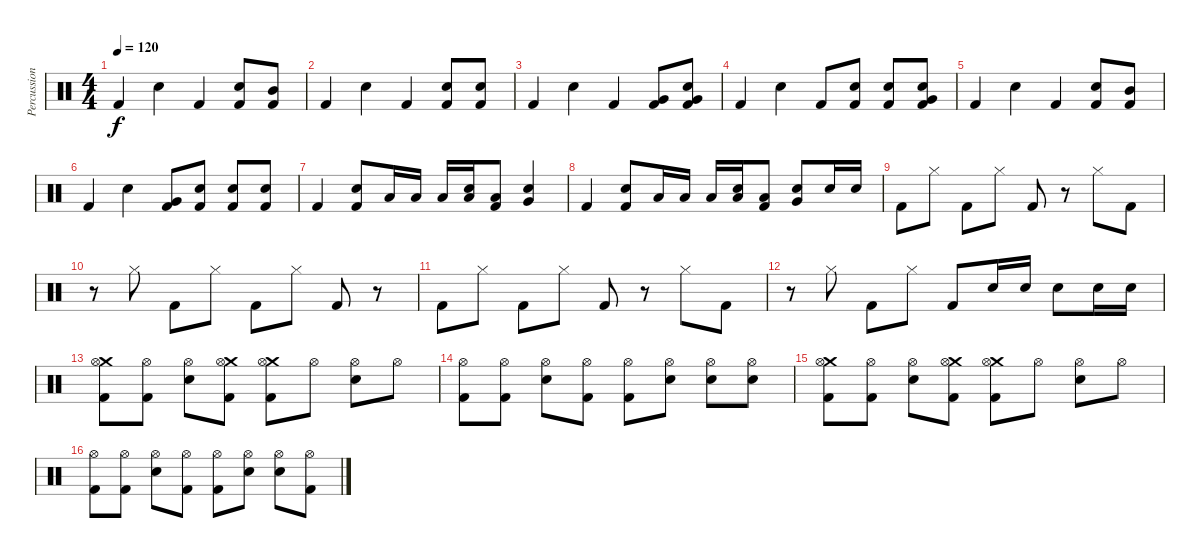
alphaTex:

\track ("Percussion" "Percussion") {instrument percussion}
\staff {score}
\articulation defaults
\ts (4 4)
\tempo 120
\clef neutral
\ks c "Kick (hit) 2".4{dy f} "Electric Snare (hit)".4 "Kick (hit) 2".4
("Electric Snare (hit)" "Kick (hit) 2").8 ("Mid Tom (hit)" "Kick (hit) 2").8 |
"Kick (hit) 2".4 "Electric Snare (hit)".4 "Kick (hit) 2".4 ("Electric Snare (hit)" "Kick (hit) 2").8 ("Electric Snare (hit)" "Kick (hit) 2").8 |
"Kick (hit) 2".4 "Electric Snare (hit)".4 "Kick (hit) 2".4 ("Very Low Tom (hit)" "Kick (hit) 2").8 ("Very Low Tom (hit)" "Electric Snare (hit)" "Kick (hit) 2").8 |
"Kick (hit) 2".4 "Electric Snare (hit)".4 "Kick (hit) 2".8 ("Electric Snare (hit)" "Kick (hit) 2").8 ("Electric Snare (hit)" "Kick (hit) 2").8 ("Very Low Tom (hit)" "Electric Snare (hit)" "Kick (hit) 2").8 |
"Kick (hit) 2".4 "Electric Snare (hit)".4 "Kick (hit) 2".4 ("Electric Snare (hit)" "Kick (hit) 2").8 ("Mid Tom (hit)" "Kick (hit) 2").8 |
"Kick (hit) 2".4 "Electric Snare (hit)".4 ("Very Low Tom (hit)" "Kick (hit) 2").8 ("Electric Snare (hit)" "Kick (hit) 2").8 ("Electric Snare (hit)" "Kick (hit) 2").8 ("Electric Snare (hit)" "Kick (hit) 2").8 |
"Kick (hit) 2".4 ("Electric Snare (hit)" "Kick (hit) 2").8 "Low Tom (hit)".16 "Low Tom (hit)".16 "Low Tom (hit)".16 ("Low Tom (hit)" "Electric Snare (hit)").16 ("Low Tom (hit)" "Kick (hit) 2").8 ("Very Low Tom (hit)" "Electric Snare (hit)").4 |
"Kick (hit) 2".4 ("Electric Snare (hit)" "Kick (hit) 2").8 "Low Tom (hit)".16 "Low Tom (hit)".16 "Low Tom (hit)".16 ("Low Tom (hit)" "Electric Snare (hit)").16 ("Low Tom (hit)" "Kick (hit) 2").8 ("Very Low Tom (hit)" "Electric Snare (hit)").8 "Electric Snare (hit)".16 "Electric Snare (hit)".16 |
"Kick (hit) 2".8 "Hi-Hat (closed)".8 "Kick (hit) 2".8 "Hi-Hat (closed)".8 "Kick (hit) 2".8 r.8 "Hi-Hat (closed)".8 "Kick (hit) 2".8 |
r.8 "Hi-Hat (closed)".8 "Kick (hit) 2".8 "Hi-Hat (closed)".8 "Kick (hit) 2".8 "Hi-Hat (closed)".8 "Kick (hit) 2".8 r.8 |
"Kick (hit) 2".8 "Hi-Hat (closed)".8 "Kick (hit) 2".8 "Hi-Hat (closed)".8 "Kick (hit) 2".8 r.8 "Hi-Hat (closed)".8 "Kick (hit) 2".8 |
r.8 "Hi-Hat (closed)".8 "Kick (hit) 2".8 "Hi-Hat (closed)".8 "Kick (hit) 2".8 "Electric Snare (hit)".16 "Electric Snare (hit)".16 "Electric Snare (hit)".8 "Electric Snare (hit)".16 "Electric Snare (hit)".16 |
("Crash medium (hit)" "Hi-Hat (open)" "Kick (hit) 2").8 ("Hi-Hat (open)" "Kick (hit) 2").8 ("Hi-Hat (open)" "Electric Snare (hit)").8 ("Crash medium (hit)" "Hi-Hat (open)" "Kick (hit) 2").8 ("Crash medium (hit)" "Hi-Hat (open)" "Kick (hit) 2").8 "Hi-Hat (open)".8 ("Hi-Hat (open)" "Electric Snare (hit)").8 "Hi-Hat (open)".8 |
("Hi-Hat (open)" "Kick (hit) 2").8 ("Hi-Hat (open)" "Kick (hit) 2").8 ("Hi-Hat (open)" "Electric Snare (hit)").8 ("Hi-Hat (open)" "Kick (hit) 2").8 ("Hi-Hat (open)" "Kick (hit) 2").8 ("Hi-Hat (open)" "Electric Snare (hit)").8 ("Hi-Hat (open)" "Electric Snare (hit)").8 ("Hi-Hat (open)" "Electric Snare (hit)").8 |
("Crash medium (hit)" "Hi-Hat (open)" "Kick (hit) 2").8 ("Hi-Hat (open)" "Kick (hit) 2").8 ("Hi-Hat (open)" "Electric Snare (hit)").8 ("Crash medium (hit)" "Hi-Hat (open)" "Kick (hit) 2").8 ("Crash medium (hit)" "Hi-Hat (open)" "Kick (hit) 2").8 "Hi-Hat (open)".8 ("Hi-Hat (open)" "Electric Snare (hit)").8 "Hi-Hat (open)".8 |
("Hi-Hat (open)" "Kick (hit) 2").8 ("Hi-Hat (open)" "Kick (hit) 2").8 ("Hi-Hat (open)" "Electric Snare (hit)").8 ("Hi-Hat (open)" "Kick (hit) 2").8 ("Hi-Hat (open)" "Kick (hit) 2").8 ("Hi-Hat (open)" "Electric Snare (hit)").8 ("Hi-Hat (open)" "Electric Snare (hit)").8 ("Hi-Hat (open)" "Kick (hit) 2").8
